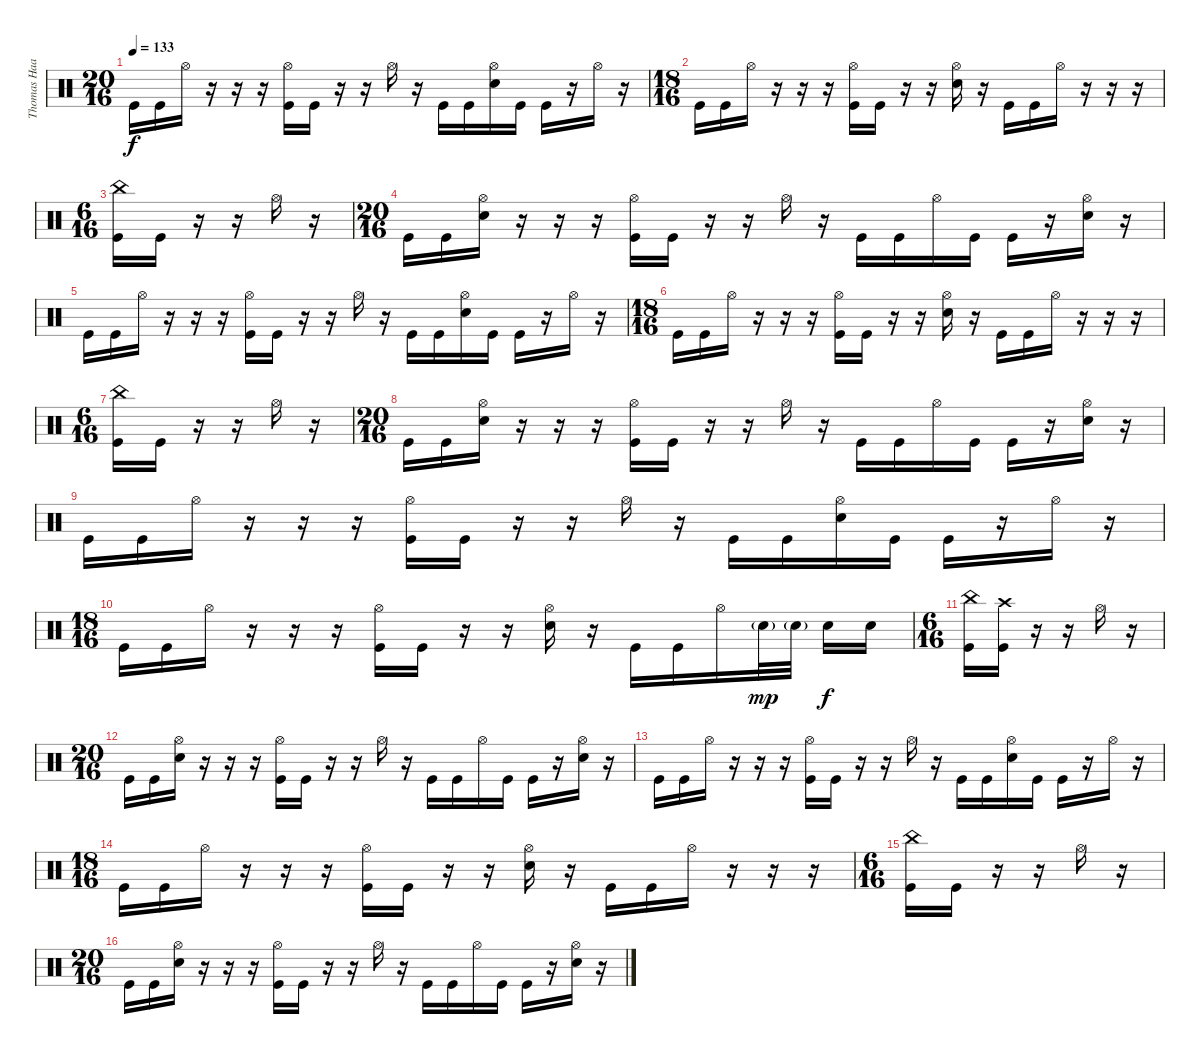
\track ("Thomas Haake" "Thomas Haa") {instrument percussion}
\staff {score}
\articulation defaults
\ts (20 16)
\tempo 133
\clef neutral
\ks c "Kick (hit)".16{dy f} "Kick (hit)".16 "Hi-Hat (open)".16
r.16 r.16 r.16 ("Hi-Hat (open)" "Kick (hit)").16 "Kick (hit)".16 r.16 r.16 "Hi-Hat (open)".16 r.16 "Kick (hit)".16 "Kick (hit)".16 ("Hi-Hat (open)" "Snare (hit) 2").16 "Kick (hit)".16 "Kick (hit)".16 r.16 "Hi-Hat (open)".16 r.16 |
\ts (18 16)
"Kick (hit)".16 "Kick (hit)".16 "Hi-Hat (open)".16 r.16 r.16 r.16 ("Hi-Hat (open)" "Kick (hit)").16 "Kick (hit)".16 r.16 r.16 ("Hi-Hat (open)" "Snare (hit) 2").16 r.16 "Kick (hit)".16 "Kick (hit)".16 "Hi-Hat (open)".16 r.16 r.16 r.16 |
\ts (6 16)
("China (hit)" "Kick (hit)").16 "Kick (hit)".16 r.16 r.16 "Hi-Hat (open)".16 r.16 |
\ts (20 16)
"Kick (hit)".16 "Kick (hit)".16 ("Hi-Hat (open)" "Snare (hit) 2").16 r.16 r.16 r.16 ("Hi-Hat (open)" "Kick (hit)").16 "Kick (hit)".16 r.16 r.16 "Hi-Hat (open)".16 r.16 "Kick (hit)".16 "Kick (hit)".16 "Hi-Hat (open)".16 "Kick (hit)".16 "Kick (hit)".16 r.16 ("Hi-Hat (open)" "Snare (hit) 2").16 r.16 |
"Kick (hit)".16 "Kick (hit)".16 "Hi-Hat (open)".16 r.16 r.16 r.16 ("Hi-Hat (open)" "Kick (hit)").16 "Kick (hit)".16 r.16 r.16 "Hi-Hat (open)".16 r.16 "Kick (hit)".16 "Kick (hit)".16 ("Hi-Hat (open)" "Snare (hit) 2").16 "Kick (hit)".16 "Kick (hit)".16 r.16 "Hi-Hat (open)".16 r.16 |
\ts (18 16)
"Kick (hit)".16 "Kick (hit)".16 "Hi-Hat (open)".16 r.16 r.16 r.16 ("Hi-Hat (open)" "Kick (hit)").16 "Kick (hit)".16 r.16 r.16 ("Hi-Hat (open)" "Snare (hit) 2").16 r.16 "Kick (hit)".16 "Kick (hit)".16 "Hi-Hat (open)".16 r.16 r.16 r.16 |
\ts (6 16)
("China (hit)" "Kick (hit)").16 "Kick (hit)".16 r.16 r.16 "Hi-Hat (open)".16 r.16 |
\ts (20 16)
"Kick (hit)".16 "Kick (hit)".16 ("Hi-Hat (open)" "Snare (hit) 2").16 r.16 r.16 r.16 ("Hi-Hat (open)" "Kick (hit)").16 "Kick (hit)".16 r.16 r.16 "Hi-Hat (open)".16 r.16 "Kick (hit)".16 "Kick (hit)".16 "Hi-Hat (open)".16 "Kick (hit)".16 "Kick (hit)".16 r.16 ("Hi-Hat (open)" "Snare (hit) 2").16 r.16 |
"Kick (hit)".16 "Kick (hit)".16 "Hi-Hat (open)".16 r.16 r.16 r.16 ("Hi-Hat (open)" "Kick (hit)").16 "Kick (hit)".16 r.16 r.16 "Hi-Hat (open)".16 r.16 "Kick (hit)".16 "Kick (hit)".16 ("Hi-Hat (open)" "Snare (hit) 2").16 "Kick (hit)".16 "Kick (hit)".16 r.16 "Hi-Hat (open)".16 r.16 |
\ts (18 16)
"Kick (hit)".16 "Kick (hit)".16 "Hi-Hat (open)".16 r.16 r.16 r.16 ("Hi-Hat (open)" "Kick (hit)").16 "Kick (hit)".16 r.16 r.16 ("Hi-Hat (open)" "Snare (hit) 2").16 r.16 "Kick (hit)".16 "Kick (hit)".16 "Hi-Hat (open)".16 "Snare (hit) 2"{g}.32{dy mp} "Snare (hit) 2"{g}.32 "Snare (hit) 2".16{dy f} "Snare (hit) 2".16 |
\ts (6 16)
("China (hit)" "Kick (hit)").16 ("Crash high (hit)" "Kick (hit)").16 r.16 r.16 "Hi-Hat (open)".16 r.16 |
\ts (20 16)
"Kick (hit)".16 "Kick (hit)".16 ("Hi-Hat (open)" "Snare (hit) 2").16 r.16 r.16 r.16 ("Hi-Hat (open)" "Kick (hit)").16 "Kick (hit)".16 r.16 r.16 "Hi-Hat (open)".16 r.16 "Kick (hit)".16 "Kick (hit)".16 "Hi-Hat (open)".16 "Kick (hit)".16 "Kick (hit)".16 r.16 ("Hi-Hat (open)" "Snare (hit) 2").16 r.16 |
"Kick (hit)".16 "Kick (hit)".16 "Hi-Hat (open)".16 r.16 r.16 r.16 ("Hi-Hat (open)" "Kick (hit)").16 "Kick (hit)".16 r.16 r.16 "Hi-Hat (open)".16 r.16 "Kick (hit)".16 "Kick (hit)".16 ("Hi-Hat (open)" "Snare (hit) 2").16 "Kick (hit)".16 "Kick (hit)".16 r.16 "Hi-Hat (open)".16 r.16 |
\ts (18 16)
"Kick (hit)".16 "Kick (hit)".16 "Hi-Hat (open)".16 r.16 r.16 r.16 ("Hi-Hat (open)" "Kick (hit)").16 "Kick (hit)".16 r.16 r.16 ("Hi-Hat (open)" "Snare (hit) 2").16 r.16 "Kick (hit)".16 "Kick (hit)".16 "Hi-Hat (open)".16 r.16 r.16 r.16 |
\ts (6 16)
("China (hit)" "Kick (hit)").16 "Kick (hit)".16 r.16 r.16 "Hi-Hat (open)".16 r.16 |
\ts (20 16)
"Kick (hit)".16 "Kick (hit)".16 ("Hi-Hat (open)" "Snare (hit) 2").16 r.16 r.16 r.16 ("Hi-Hat (open)" "Kick (hit)").16 "Kick (hit)".16 r.16 r.16 "Hi-Hat (open)".16 r.16 "Kick (hit)".16 "Kick (hit)".16 "Hi-Hat (open)".16 "Kick (hit)".16 "Kick (hit)".16 r.16 ("Hi-Hat (open)" "Snare (hit) 2").16 r.16
